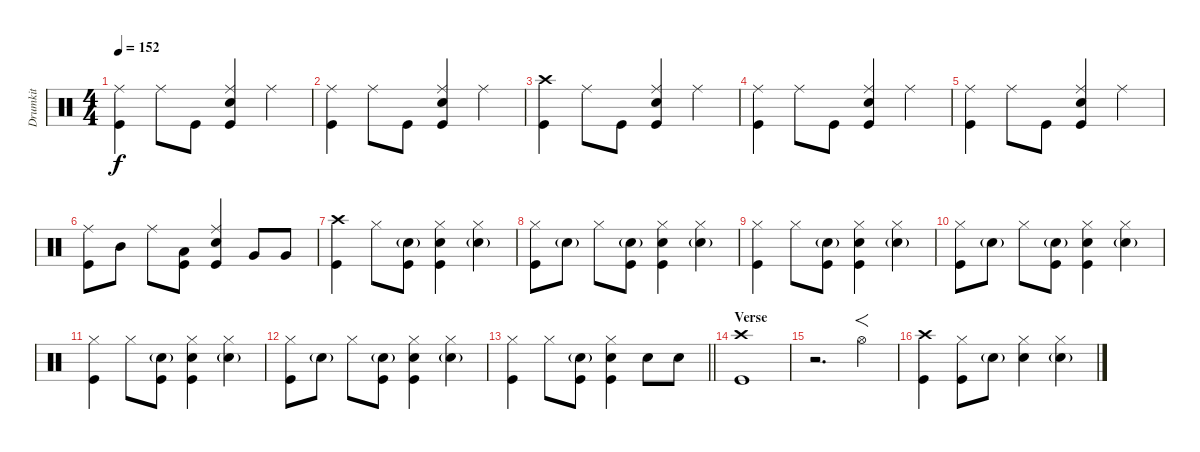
\track ("Drumkit" "Drumkit") {instrument percussion}
\staff {score}
\articulation defaults
\ts (4 4)
\tempo 152
\clef neutral
\ks c
("Kick (hit)" "Ride (middle)").4{dy f} "Ride (middle)".8 "Kick (hit)".8 ("Snare (hit) 2" "Ride (middle)" "Kick (hit)").4 "Ride (middle)".4 |
("Kick (hit)" "Ride (middle)").4 "Ride (middle)".8 "Kick (hit)".8 ("Snare (hit) 2" "Ride (middle)" "Kick (hit)").4 "Ride (middle)".4 |
("Crash high (hit)" "Kick (hit)").4 "Ride (middle)".8 "Kick (hit)".8 ("Snare (hit) 2" "Ride (middle)" "Kick (hit)").4 "Ride (middle)".4 |
("Kick (hit)" "Ride (middle)").4 "Ride (middle)".8 "Kick (hit)".8 ("Snare (hit) 2" "Ride (middle)" "Kick (hit)").4 "Ride (middle)".4 |
("Kick (hit)" "Ride (middle)").4 "Ride (middle)".8 "Kick (hit)".8 ("Snare (hit) 2" "Ride (middle)" "Kick (hit)").4 "Ride (middle)".4 |
("Kick (hit)" "Ride (middle)").8 "Mid Tom (hit)".8 "Ride (middle)".8 ("Kick (hit)" "Low Tom (hit)").8 ("Snare (hit) 2" "Ride (middle)" "Kick (hit)").4 "Very Low Tom (hit)".8 "Very Low Tom (hit)".8 |
("Kick (hit)" "Crash high (hit)").4 "Hi-Hat (closed)".8 ("Kick (hit)" "Snare (hit) 2"{g}).8 ("Kick (hit)" "Hi-Hat (closed)" "Snare (hit) 2").4 ("Hi-Hat (closed)" "Snare (hit) 2"{g}).4 |
("Kick (hit)" "Hi-Hat (closed)").8 "Snare (hit) 2"{g}.8 "Hi-Hat (closed)".8 ("Kick (hit)" "Snare (hit) 2"{g}).8 ("Kick (hit)" "Hi-Hat (closed)" "Snare (hit) 2").4 ("Hi-Hat (closed)" "Snare (hit) 2"{g}).4 |
("Kick (hit)" "Hi-Hat (closed)").4 "Hi-Hat (closed)".8 ("Kick (hit)" "Snare (hit) 2"{g}).8 ("Kick (hit)" "Hi-Hat (closed)" "Snare (hit) 2").4 ("Hi-Hat (closed)" "Snare (hit) 2"{g}).4 |
("Kick (hit)" "Hi-Hat (closed)").8 "Snare (hit) 2"{g}.8 "Hi-Hat (closed)".8 ("Kick (hit)" "Snare (hit) 2"{g}).8 ("Kick (hit)" "Hi-Hat (closed)" "Snare (hit) 2").4 ("Hi-Hat (closed)" "Snare (hit) 2"{g}).4 |
("Kick (hit)" "Hi-Hat (closed)").4 "Hi-Hat (closed)".8 ("Kick (hit)" "Snare (hit) 2"{g}).8 ("Kick (hit)" "Hi-Hat (closed)" "Snare (hit) 2").4 ("Hi-Hat (closed)" "Snare (hit) 2"{g}).4 |
("Kick (hit)" "Hi-Hat (closed)").8 "Snare (hit) 2"{g}.8 "Hi-Hat (closed)".8 ("Kick (hit)" "Snare (hit) 2"{g}).8 ("Kick (hit)" "Hi-Hat (closed)" "Snare (hit) 2").4 ("Hi-Hat (closed)" "Snare (hit) 2"{g}).4 |
\barLineRight lightlight
("Kick (hit)" "Hi-Hat (closed)").4 "Hi-Hat (closed)".8 ("Kick (hit)" "Snare (hit) 2"{g}).8 ("Kick (hit)" "Hi-Hat (closed)" "Snare (hit) 2").4 "Snare (hit) 2".8 "Snare (hit) 2".8 |
\section ("" "Verse")
("Kick (hit)" "Crash high (hit)").1 |
r.2{d} "Hi-Hat (open)".4{f} |
("Kick (hit)" "Crash high (hit)").4 ("Hi-Hat (closed)" "Kick (hit)").8 "Snare (hit) 2"{g}.8 ("Hi-Hat (closed)" "Snare (hit) 2").4 ("Hi-Hat (closed)" "Snare (hit) 2"{g}).4
